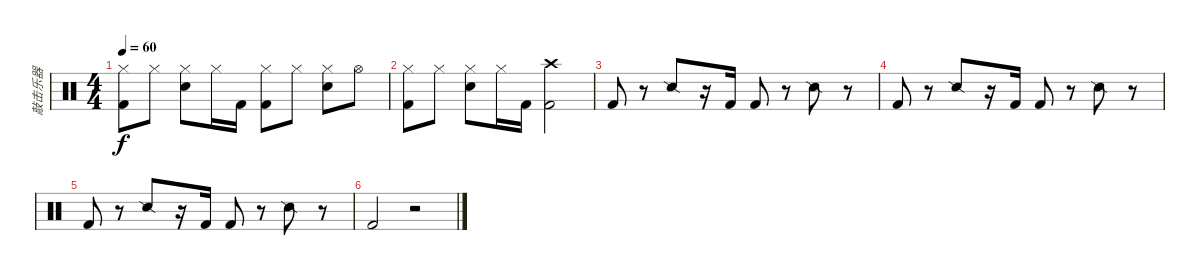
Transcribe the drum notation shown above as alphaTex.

\track ("敲击乐器" "敲击乐器") {instrument percussion}
\staff {score}
\articulation defaults
\ts (4 4)
\tempo 60
\clef neutral
\ks c
("Hi-Hat (closed)" "Kick (hit) 2").8{dy f} "Hi-Hat (closed)".8 ("Hi-Hat (closed)" "Snare (hit) 2").8 "Hi-Hat (closed)".16 "Kick (hit) 2".16 ("Hi-Hat (closed)" "Kick (hit) 2").8 "Hi-Hat (closed)".8 ("Hi-Hat (closed)" "Snare (hit) 2").8 "Hi-Hat (open)".8 |
("Hi-Hat (closed)" "Kick (hit) 2").8 "Hi-Hat (closed)".8 ("Hi-Hat (closed)" "Snare (hit) 2").8 "Hi-Hat (closed)".16 "Kick (hit) 2".16 ("Crash high (hit)" "Kick (hit) 2").2 |
"Kick (hit) 2".8 r.8 "Snare (side stick) 2".8 r.16 "Kick (hit) 2".16 "Kick (hit) 2".8 r.8 "Snare (side stick) 2".8 r.8 |
"Kick (hit) 2".8 r.8 "Snare (side stick) 2".8 r.16 "Kick (hit) 2".16 "Kick (hit) 2".8 r.8 "Snare (side stick) 2".8 r.8 |
"Kick (hit) 2".8 r.8 "Snare (side stick) 2".8 r.16 "Kick (hit) 2".16 "Kick (hit) 2".8 r.8 "Snare (side stick) 2".8 r.8 |
"Kick (hit) 2".2 r.2
